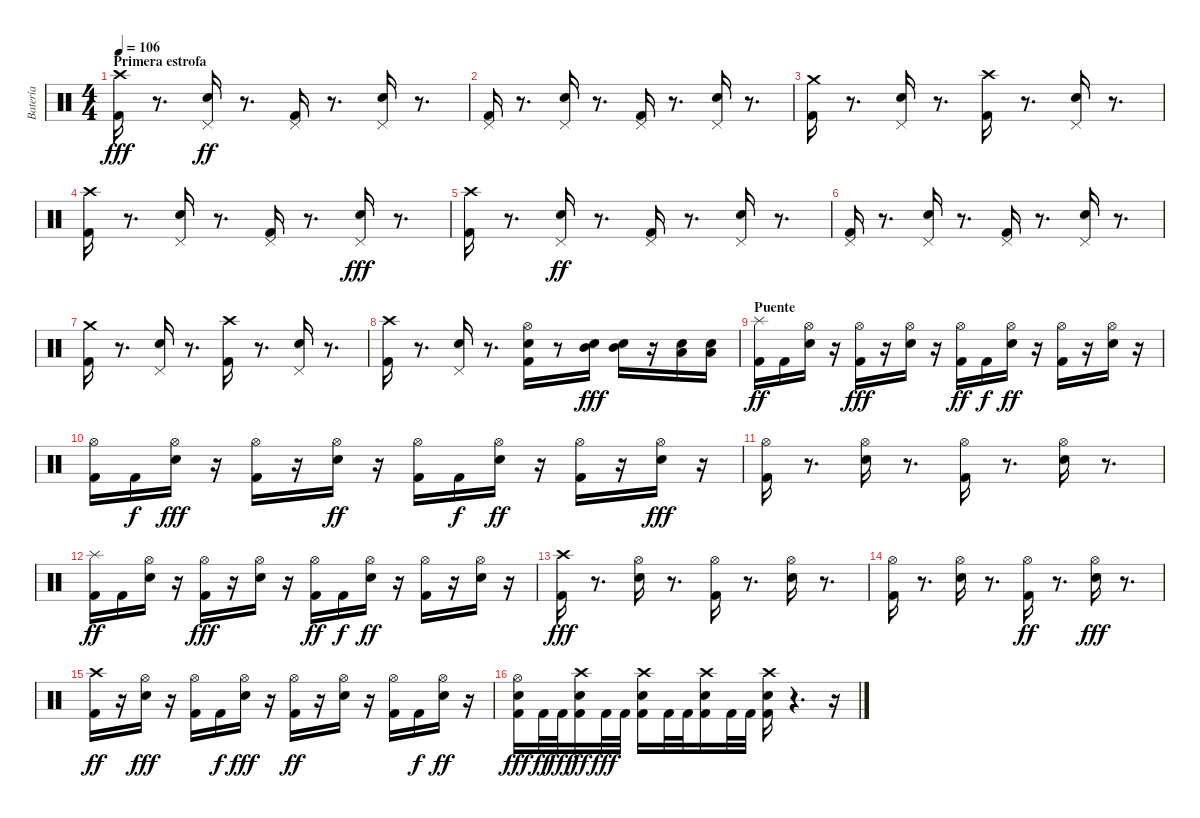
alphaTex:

\track ("Batería" "Batería") {instrument percussion}
\staff {score}
\articulation defaults
\ts (4 4)
\section ("" "Primera estrofa")
\tempo 106
\clef neutral
\ks c
("Crash high (hit)" "Kick (hit) 2").16{dy fff} r.8{d} ("Pedal Hi-Hat (hit)" "Electric Snare (hit)").16{dy ff} r.8{d} ("Pedal Hi-Hat (hit)" "Kick (hit) 2").16 r.8{d} ("Pedal Hi-Hat (hit)" "Electric Snare (hit)").16 r.8{d} |
("Pedal Hi-Hat (hit)" "Kick (hit) 2").16 r.8{d} ("Pedal Hi-Hat (hit)" "Electric Snare (hit)").16 r.8{d} ("Pedal Hi-Hat (hit)" "Kick (hit) 2").16 r.8{d} ("Pedal Hi-Hat (hit)" "Electric Snare (hit)").16 r.8{d} |
("Crash medium (hit)" "Kick (hit) 2").16 r.8{d} ("Pedal Hi-Hat (hit)" "Electric Snare (hit)").16 r.8{d} ("Crash high (hit)" "Kick (hit) 2").16 r.8{d} ("Pedal Hi-Hat (hit)" "Electric Snare (hit)").16 r.8{d} |
("Crash high (hit)" "Kick (hit) 2").16 r.8{d} ("Pedal Hi-Hat (hit)" "Electric Snare (hit)").16 r.8{d} ("Pedal Hi-Hat (hit)" "Kick (hit) 2").16 r.8{d} ("Pedal Hi-Hat (hit)" "Electric Snare (hit)").16{dy fff} r.8{d} |
("Crash high (hit)" "Kick (hit) 2").16 r.8{d} ("Pedal Hi-Hat (hit)" "Electric Snare (hit)").16{dy ff} r.8{d} ("Pedal Hi-Hat (hit)" "Kick (hit) 2").16 r.8{d} ("Pedal Hi-Hat (hit)" "Electric Snare (hit)").16 r.8{d} |
("Pedal Hi-Hat (hit)" "Kick (hit) 2").16 r.8{d} ("Pedal Hi-Hat (hit)" "Electric Snare (hit)").16 r.8{d} ("Pedal Hi-Hat (hit)" "Kick (hit) 2").16 r.8{d} ("Pedal Hi-Hat (hit)" "Electric Snare (hit)").16 r.8{d} |
("Crash medium (hit)" "Kick (hit) 2").16 r.8{d} ("Pedal Hi-Hat (hit)" "Electric Snare (hit)").16 r.8{d} ("Crash high (hit)" "Kick (hit) 2").16 r.8{d} ("Pedal Hi-Hat (hit)" "Electric Snare (hit)").16 r.8{d} |
("Crash high (hit)" "Kick (hit) 2").16 r.8{d} ("Pedal Hi-Hat (hit)" "Electric Snare (hit)").16 r.8{d} ("Hi-Hat (open)" "Electric Snare (hit)" "Kick (hit) 2").16 r.8 ("Electric Snare (hit)" "Mid Tom (hit)").16{dy fff} ("Electric Snare (hit)" "Mid Tom (hit)").16 r.16 ("Electric Snare (hit)" "Low Tom (hit)").16 ("Electric Snare (hit)" "Low Tom (hit)").16 |
\section ("" "Puente")
("Splash (hit)" "Kick (hit) 2").16{dy ff} "Kick (hit) 2".16 ("Hi-Hat (open)" "Electric Snare (hit)").16 r.16 ("Hi-Hat (open)" "Kick (hit) 2").16{dy fff} r.16 ("Hi-Hat (open)" "Electric Snare (hit)").16 r.16 ("Hi-Hat (open)" "Kick (hit) 2").16{dy ff} "Kick (hit) 2".16{dy f} ("Hi-Hat (open)" "Electric Snare (hit)").16{dy ff} r.16 ("Hi-Hat (open)" "Kick (hit) 2").16 r.16 ("Hi-Hat (open)" "Electric Snare (hit)").16 r.16 |
("Hi-Hat (open)" "Kick (hit) 2").16 "Kick (hit) 2".16{dy f} ("Hi-Hat (open)" "Electric Snare (hit)").16{dy fff} r.16 ("Hi-Hat (open)" "Kick (hit) 2").16 r.16 ("Hi-Hat (open)" "Electric Snare (hit)").16{dy ff} r.16 ("Hi-Hat (open)" "Kick (hit) 2").16 "Kick (hit) 2".16{dy f} ("Hi-Hat (open)" "Electric Snare (hit)").16{dy ff} r.16 ("Hi-Hat (open)" "Kick (hit) 2").16 r.16 ("Hi-Hat (open)" "Electric Snare (hit)").16{dy fff} r.16 |
("Hi-Hat (open)" "Kick (hit) 2").16 r.8{d} ("Hi-Hat (open)" "Electric Snare (hit)").16 r.8{d} ("Hi-Hat (open)" "Kick (hit) 2").16 r.8{d} ("Hi-Hat (open)" "Electric Snare (hit)").16 r.8{d} |
("Splash (hit)" "Kick (hit) 2").16{dy ff} "Kick (hit) 2".16 ("Hi-Hat (open)" "Electric Snare (hit)").16 r.16 ("Hi-Hat (open)" "Kick (hit) 2").16{dy fff} r.16 ("Hi-Hat (open)" "Electric Snare (hit)").16 r.16 ("Hi-Hat (open)" "Kick (hit) 2").16{dy ff} "Kick (hit) 2".16{dy f} ("Hi-Hat (open)" "Electric Snare (hit)").16{dy ff} r.16 ("Hi-Hat (open)" "Kick (hit) 2").16 r.16 ("Hi-Hat (open)" "Electric Snare (hit)").16 r.16 |
("Crash high (hit)" "Kick (hit) 2").16{dy fff} r.8{d} ("Hi-Hat (open)" "Electric Snare (hit)").16 r.8{d} ("Hi-Hat (open)" "Kick (hit) 2").16 r.8{d} ("Hi-Hat (open)" "Electric Snare (hit)").16 r.8{d} |
("Hi-Hat (open)" "Kick (hit) 2").16 r.8{d} ("Hi-Hat (open)" "Electric Snare (hit)").16 r.8{d} ("Hi-Hat (open)" "Kick (hit) 2").16{dy ff} r.8{d} ("Hi-Hat (open)" "Electric Snare (hit)").16{dy fff} r.8{d} |
("Crash high (hit)" "Kick (hit) 2").16{dy ff} r.16 ("Hi-Hat (open)" "Electric Snare (hit)").16{dy fff} r.16 ("Hi-Hat (open)" "Kick (hit) 2").16 "Kick (hit) 2".16{dy f} ("Hi-Hat (open)" "Electric Snare (hit)").16{dy fff} r.16 ("Hi-Hat (open)" "Kick (hit) 2").16{dy ff} r.16 ("Hi-Hat (open)" "Electric Snare (hit)").16 r.16 ("Hi-Hat (open)" "Kick (hit) 2").16 "Kick (hit) 2".16{dy f} ("Hi-Hat (open)" "Electric Snare (hit)").16{dy ff} r.16 |
("Hi-Hat (open)" "Electric Snare (hit)" "Kick (hit) 2").16{dy fff} "Kick (hit) 2".32{dy ff} "Kick (hit) 2".32{dy fff} ("Crash high (hit)" "Electric Snare (hit)" "Kick (hit) 2").16{dy ff} "Kick (hit) 2".32{dy fff} "Kick (hit) 2".32 ("Crash high (hit)" "Electric Snare (hit)" "Kick (hit) 2").16 "Kick (hit) 2".32 "Kick (hit) 2".32 ("Crash high (hit)" "Electric Snare (hit)" "Kick (hit) 2").16 "Kick (hit) 2".32 "Kick (hit) 2".32 ("Crash high (hit)" "Electric Snare (hit)" "Kick (hit) 2").16 r.4{d} r.16
